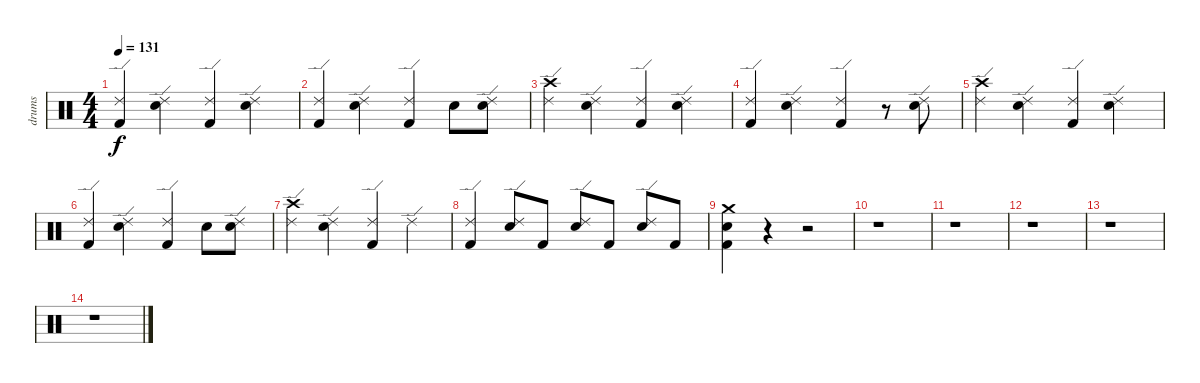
\track ("drums" "drums") {instrument percussion}
\staff {score}
\articulation defaults
\ts (4 4)
\tempo 131
\clef neutral
\ks c
("Kick (hit) 2" "Ride (edge) 2").4{dy f} ("Electric Snare (hit)" "Ride (edge) 2").4 ("Kick (hit) 2" "Ride (edge) 2").4 ("Electric Snare (hit)" "Ride (edge) 2").4 |
("Kick (hit) 2" "Ride (edge) 2").4 ("Electric Snare (hit)" "Ride (edge) 2").4 ("Kick (hit) 2" "Ride (edge) 2").4 "Electric Snare (hit)".8 ("Electric Snare (hit)" "Ride (edge) 2").8 |
("Crash high (hit)" "Ride (edge) 2").4 ("Electric Snare (hit)" "Ride (edge) 2").4 ("Kick (hit) 2" "Ride (edge) 2").4 ("Electric Snare (hit)" "Ride (edge) 2").4 |
("Kick (hit) 2" "Ride (edge) 2").4 ("Electric Snare (hit)" "Ride (edge) 2").4 ("Kick (hit) 2" "Ride (edge) 2").4 r.8 ("Electric Snare (hit)" "Ride (edge) 2").8 |
("Crash high (hit)" "Ride (edge) 2").4 ("Electric Snare (hit)" "Ride (edge) 2").4 ("Kick (hit) 2" "Ride (edge) 2").4 ("Electric Snare (hit)" "Ride (edge) 2").4 |
("Kick (hit) 2" "Ride (edge) 2").4 ("Electric Snare (hit)" "Ride (edge) 2").4 ("Kick (hit) 2" "Ride (edge) 2").4 "Electric Snare (hit)".8 ("Electric Snare (hit)" "Ride (edge) 2").8 |
("Crash high (hit)" "Ride (edge) 2").4 ("Electric Snare (hit)" "Ride (edge) 2").4 ("Kick (hit) 2" "Ride (edge) 2").4 "Ride (edge) 2".4 |
("Kick (hit) 2" "Ride (edge) 2").4 ("Electric Snare (hit)" "Ride (edge) 2").8 "Kick (hit) 2".8 ("Electric Snare (hit)" "Ride (edge) 2").8 "Kick (hit) 2".8 ("Electric Snare (hit)" "Ride (edge) 2").8 "Kick (hit) 2".8 |
("Crash medium (hit)" "Kick (hit) 2" "Electric Snare (hit)").4 r.4 r.2 |
r.1 |
r.1 |
r.1 |
r.1 |
r.1
